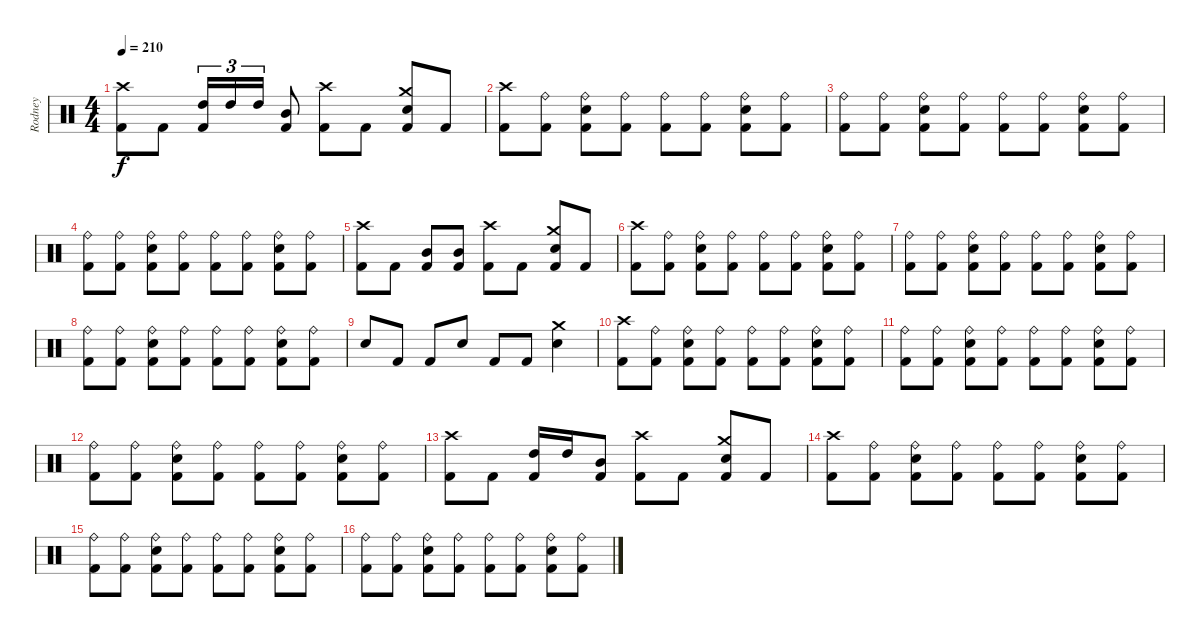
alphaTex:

\track ("Rodney" "Rodney") {instrument percussion}
\staff {score}
\articulation defaults
\ts (4 4)
\tempo 210
\clef neutral
\ks c
("Crash high (hit)" "Kick (hit) 2").8{dy f} "Kick (hit) 2".8 ("High Tom (hit)" "Kick (hit) 2").16{tu (3 2)} "High Tom (hit)".16{tu (3 2)} "High Tom (hit)".16{tu (3 2)} ("Mid Tom (hit)" "Kick (hit) 2").8 ("Crash high (hit)" "Kick (hit) 2").8 "Kick (hit) 2".8 ("Crash medium (hit)" "Snare (hit) 2" "Kick (hit) 2").8 "Kick (hit) 2".8 |
("Crash high (hit)" "Kick (hit) 2").8 ("Ride (bell)" "Kick (hit) 2").8 ("Ride (bell)" "Snare (hit) 2" "Kick (hit) 2").8 ("Ride (bell)" "Kick (hit) 2").8 ("Ride (bell)" "Kick (hit) 2").8 ("Ride (bell)" "Kick (hit) 2").8 ("Ride (bell)" "Snare (hit) 2" "Kick (hit) 2").8 ("Ride (bell)" "Kick (hit) 2").8 |
("Ride (bell)" "Kick (hit) 2").8 ("Ride (bell)" "Kick (hit) 2").8 ("Ride (bell)" "Snare (hit) 2" "Kick (hit) 2").8 ("Ride (bell)" "Kick (hit) 2").8 ("Ride (bell)" "Kick (hit) 2").8 ("Ride (bell)" "Kick (hit) 2").8 ("Ride (bell)" "Snare (hit) 2" "Kick (hit) 2").8 ("Ride (bell)" "Kick (hit) 2").8 |
("Ride (bell)" "Kick (hit) 2").8 ("Ride (bell)" "Kick (hit) 2").8 ("Ride (bell)" "Snare (hit) 2" "Kick (hit) 2").8 ("Ride (bell)" "Kick (hit) 2").8 ("Ride (bell)" "Kick (hit) 2").8 ("Ride (bell)" "Kick (hit) 2").8 ("Ride (bell)" "Snare (hit) 2" "Kick (hit) 2").8 ("Ride (bell)" "Kick (hit) 2").8 |
("Crash high (hit)" "Kick (hit) 2").8 "Kick (hit) 2".8 ("Mid Tom (hit)" "Kick (hit) 2").8 ("Mid Tom (hit)" "Kick (hit) 2").8 ("Crash high (hit)" "Kick (hit) 2").8 "Kick (hit) 2".8 ("Crash medium (hit)" "Snare (hit) 2" "Kick (hit) 2").8 "Kick (hit) 2".8 |
("Crash high (hit)" "Kick (hit) 2").8 ("Ride (bell)" "Kick (hit) 2").8 ("Ride (bell)" "Snare (hit) 2" "Kick (hit) 2").8 ("Ride (bell)" "Kick (hit) 2").8 ("Ride (bell)" "Kick (hit) 2").8 ("Ride (bell)" "Kick (hit) 2").8 ("Ride (bell)" "Snare (hit) 2" "Kick (hit) 2").8 ("Ride (bell)" "Kick (hit) 2").8 |
("Ride (bell)" "Kick (hit) 2").8 ("Ride (bell)" "Kick (hit) 2").8 ("Ride (bell)" "Snare (hit) 2" "Kick (hit) 2").8 ("Ride (bell)" "Kick (hit) 2").8 ("Ride (bell)" "Kick (hit) 2").8 ("Ride (bell)" "Kick (hit) 2").8 ("Ride (bell)" "Snare (hit) 2" "Kick (hit) 2").8 ("Ride (bell)" "Kick (hit) 2").8 |
("Ride (bell)" "Kick (hit) 2").8 ("Ride (bell)" "Kick (hit) 2").8 ("Ride (bell)" "Snare (hit) 2" "Kick (hit) 2").8 ("Ride (bell)" "Kick (hit) 2").8 ("Ride (bell)" "Kick (hit) 2").8 ("Ride (bell)" "Kick (hit) 2").8 ("Ride (bell)" "Snare (hit) 2" "Kick (hit) 2").8 ("Ride (bell)" "Kick (hit) 2").8 |
"Snare (hit) 2".8 "Kick (hit) 2".8 "Kick (hit) 2".8 "Snare (hit) 2".8 "Kick (hit) 2".8 "Kick (hit) 2".8 ("Crash medium (hit)" "Snare (hit) 2").4 |
("Crash high (hit)" "Kick (hit) 2").8 ("Ride (bell)" "Kick (hit) 2").8 ("Ride (bell)" "Snare (hit) 2" "Kick (hit) 2").8 ("Ride (bell)" "Kick (hit) 2").8 ("Ride (bell)" "Kick (hit) 2").8 ("Ride (bell)" "Kick (hit) 2").8 ("Ride (bell)" "Snare (hit) 2" "Kick (hit) 2").8 ("Ride (bell)" "Kick (hit) 2").8 |
("Ride (bell)" "Kick (hit) 2").8 ("Ride (bell)" "Kick (hit) 2").8 ("Ride (bell)" "Snare (hit) 2" "Kick (hit) 2").8 ("Ride (bell)" "Kick (hit) 2").8 ("Ride (bell)" "Kick (hit) 2").8 ("Ride (bell)" "Kick (hit) 2").8 ("Ride (bell)" "Snare (hit) 2" "Kick (hit) 2").8 ("Ride (bell)" "Kick (hit) 2").8 |
("Ride (bell)" "Kick (hit) 2").8 ("Ride (bell)" "Kick (hit) 2").8 ("Ride (bell)" "Snare (hit) 2" "Kick (hit) 2").8 ("Ride (bell)" "Kick (hit) 2").8 ("Ride (bell)" "Kick (hit) 2").8 ("Ride (bell)" "Kick (hit) 2").8 ("Ride (bell)" "Snare (hit) 2" "Kick (hit) 2").8 ("Ride (bell)" "Kick (hit) 2").8 |
("Crash high (hit)" "Kick (hit) 2").8 "Kick (hit) 2".8 ("High Tom (hit)" "Kick (hit) 2").16 "High Tom (hit)".16 ("Mid Tom (hit)" "Kick (hit) 2").8 ("Crash high (hit)" "Kick (hit) 2").8 "Kick (hit) 2".8 ("Crash medium (hit)" "Snare (hit) 2" "Kick (hit) 2").8 "Kick (hit) 2".8 |
("Crash high (hit)" "Kick (hit) 2").8 ("Ride (bell)" "Kick (hit) 2").8 ("Ride (bell)" "Snare (hit) 2" "Kick (hit) 2").8 ("Ride (bell)" "Kick (hit) 2").8 ("Ride (bell)" "Kick (hit) 2").8 ("Ride (bell)" "Kick (hit) 2").8 ("Ride (bell)" "Snare (hit) 2" "Kick (hit) 2").8 ("Ride (bell)" "Kick (hit) 2").8 |
("Ride (bell)" "Kick (hit) 2").8 ("Ride (bell)" "Kick (hit) 2").8 ("Ride (bell)" "Snare (hit) 2" "Kick (hit) 2").8 ("Ride (bell)" "Kick (hit) 2").8 ("Ride (bell)" "Kick (hit) 2").8 ("Ride (bell)" "Kick (hit) 2").8 ("Ride (bell)" "Snare (hit) 2" "Kick (hit) 2").8 ("Ride (bell)" "Kick (hit) 2").8 |
("Ride (bell)" "Kick (hit) 2").8 ("Ride (bell)" "Kick (hit) 2").8 ("Ride (bell)" "Snare (hit) 2" "Kick (hit) 2").8 ("Ride (bell)" "Kick (hit) 2").8 ("Ride (bell)" "Kick (hit) 2").8 ("Ride (bell)" "Kick (hit) 2").8 ("Ride (bell)" "Snare (hit) 2" "Kick (hit) 2").8 ("Ride (bell)" "Kick (hit) 2").8
